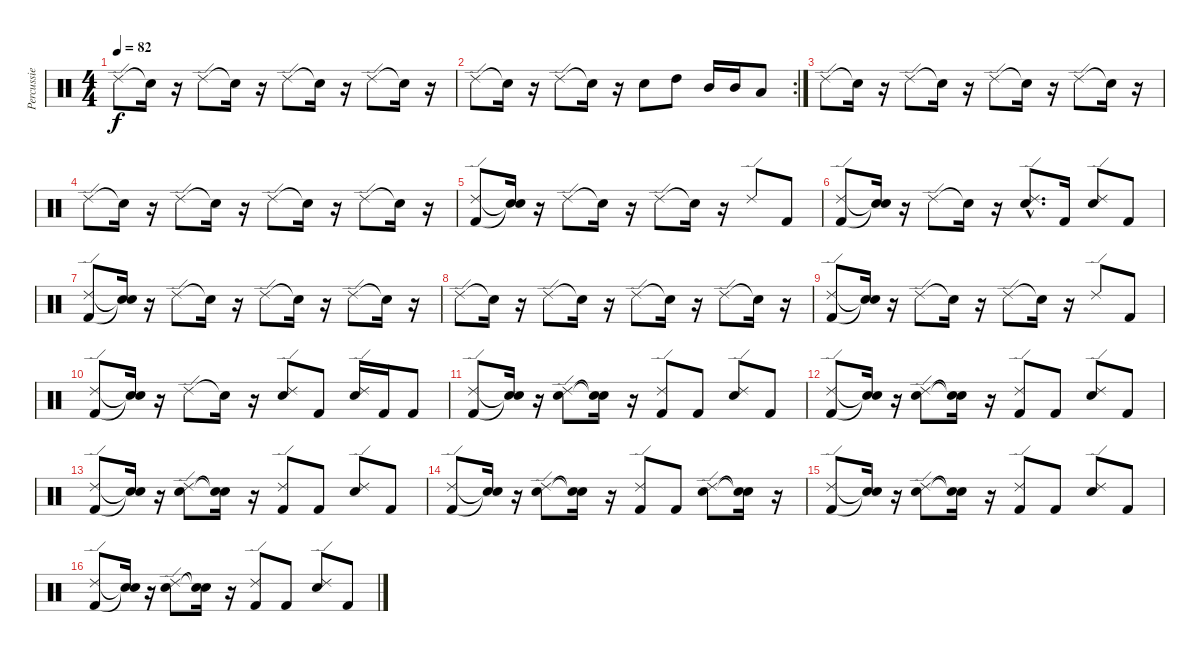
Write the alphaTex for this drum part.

\track ("Percussie" "Percussie") {instrument percussion}
\staff {score}
\articulation defaults
\ts (4 4)
\tempo 82
\clef neutral
\ks c "Ride (edge) 2".8{dy f} "Snare (hit)"{t}.16
r.16 "Ride (edge) 2".8 "Snare (hit)"{t}.16 r.16 "Ride (edge) 2".8 "Snare (hit)"{t}.16 r.16 "Ride (edge) 2".8 "Snare (hit)"{t}.16 r.16 |
\rc 2 "Ride (edge) 2".8 "Snare (hit)"{t}.16
r.16 "Ride (edge) 2".8 "Snare (hit)"{t}.16 r.16 "Snare (hit) 2".8 "High Tom (hit)".8 "Mid Tom (hit)".16 "Mid Tom (hit)".16 "Low Tom (hit)".8 |
"Ride (edge) 2".8 "Snare (hit)"{t}.16 r.16 "Ride (edge) 2".8 "Snare (hit)"{t}.16 r.16 "Ride (edge) 2".8 "Snare (hit)"{t}.16 r.16 "Ride (edge) 2".8 "Snare (hit)"{t}.16 r.16 |
"Ride (edge) 2".8 "Snare (hit)"{t}.16 r.16 "Ride (edge) 2".8 "Snare (hit)"{t}.16 r.16 "Ride (edge) 2".8 "Snare (hit)"{t}.16 r.16 "Ride (edge) 2".8 "Snare (hit)"{t}.16 r.16 |
("Kick (hit) 2" "Ride (edge) 2").8 ("Snare (hit)"{t} "Snare (hit)"{t}).16 r.16 "Ride (edge) 2".8 "Snare (hit)"{t}.16 r.16 "Ride (edge) 2".8 "Snare (hit)"{t}.16 r.16 "Ride (edge) 2".8 "Kick (hit) 2".8 |
("Kick (hit) 2" "Ride (edge) 2").8 ("Snare (hit)"{t} "Snare (hit)"{t}).16 r.16 "Ride (edge) 2".8 "Snare (hit)"{t}.16 r.16 ("Snare (hit) 2"{hac} "Ride (edge) 2"{hac}).8{d} "Kick (hit) 2".16 ("Snare (hit) 2" "Ride (edge) 2").8 "Kick (hit) 2".8 |
("Kick (hit) 2" "Ride (edge) 2").8 ("Snare (hit)"{t} "Snare (hit)"{t}).16 r.16 "Ride (edge) 2".8 "Snare (hit)"{t}.16 r.16 "Ride (edge) 2".8 "Snare (hit)"{t}.16 r.16 "Ride (edge) 2".8 "Snare (hit)"{t}.16 r.16 |
"Ride (edge) 2".8 "Snare (hit)"{t}.16 r.16 "Ride (edge) 2".8 "Snare (hit)"{t}.16 r.16 "Ride (edge) 2".8 "Snare (hit)"{t}.16 r.16 "Ride (edge) 2".8 "Snare (hit)"{t}.16 r.16 |
("Kick (hit) 2" "Ride (edge) 2").8 ("Snare (hit)"{t} "Snare (hit)"{t}).16 r.16 "Ride (edge) 2".8 "Snare (hit)"{t}.16 r.16 "Ride (edge) 2".8 "Snare (hit)"{t}.16 r.16 "Ride (edge) 2".8 "Kick (hit) 2".8 |
("Kick (hit) 2" "Ride (edge) 2").8 ("Snare (hit)"{t} "Snare (hit)"{t}).16 r.16 "Ride (edge) 2".8 "Snare (hit)"{t}.16 r.16 ("Snare (hit) 2" "Ride (edge) 2").8 "Kick (hit) 2".8 ("Snare (hit) 2" "Ride (edge) 2").16 "Kick (hit) 2".16 "Kick (hit) 2".8 |
("Kick (hit) 2" "Ride (edge) 2").8 ("Snare (hit)"{t} "Snare (hit)"{t}).16 r.16 ("Snare (hit) 2" "Ride (edge) 2").8 ("Snare (hit)"{t} "Snare (hit)"{t}).16 r.16 ("Kick (hit) 2" "Ride (edge) 2").8 "Kick (hit) 2".8 ("Snare (hit) 2" "Ride (edge) 2").8 "Kick (hit) 2".8 |
("Kick (hit) 2" "Ride (edge) 2").8 ("Snare (hit)"{t} "Snare (hit)"{t}).16 r.16 ("Snare (hit) 2" "Ride (edge) 2").8 ("Snare (hit)"{t} "Snare (hit)"{t}).16 r.16 ("Kick (hit) 2" "Ride (edge) 2").8 "Kick (hit) 2".8 ("Snare (hit) 2" "Ride (edge) 2").8 "Kick (hit) 2".8 |
("Kick (hit) 2" "Ride (edge) 2").8 ("Snare (hit)"{t} "Snare (hit)"{t}).16 r.16 ("Snare (hit) 2" "Ride (edge) 2").8 ("Snare (hit)"{t} "Snare (hit)"{t}).16 r.16 ("Kick (hit) 2" "Ride (edge) 2").8 "Kick (hit) 2".8 ("Snare (hit) 2" "Ride (edge) 2").8 "Kick (hit) 2".8 |
("Kick (hit) 2" "Ride (edge) 2").8 ("Snare (hit)"{t} "Snare (hit)"{t}).16 r.16 ("Snare (hit) 2" "Ride (edge) 2").8 ("Snare (hit)"{t} "Snare (hit)"{t}).16 r.16 ("Kick (hit) 2" "Ride (edge) 2").8 "Kick (hit) 2".8 ("Snare (hit) 2" "Ride (edge) 2").8 ("Snare (hit)"{t} "Snare (hit)"{t}).16 r.16 |
("Kick (hit) 2" "Ride (edge) 2").8 ("Snare (hit)"{t} "Snare (hit)"{t}).16 r.16 ("Snare (hit) 2" "Ride (edge) 2").8 ("Snare (hit)"{t} "Snare (hit)"{t}).16 r.16 ("Kick (hit) 2" "Ride (edge) 2").8 "Kick (hit) 2".8 ("Snare (hit) 2" "Ride (edge) 2").8 "Kick (hit) 2".8 |
("Kick (hit) 2" "Ride (edge) 2").8 ("Snare (hit)"{t} "Snare (hit)"{t}).16 r.16 ("Snare (hit) 2" "Ride (edge) 2").8 ("Snare (hit)"{t} "Snare (hit)"{t}).16 r.16 ("Kick (hit) 2" "Ride (edge) 2").8 "Kick (hit) 2".8 ("Snare (hit) 2" "Ride (edge) 2").8 "Kick (hit) 2".8
